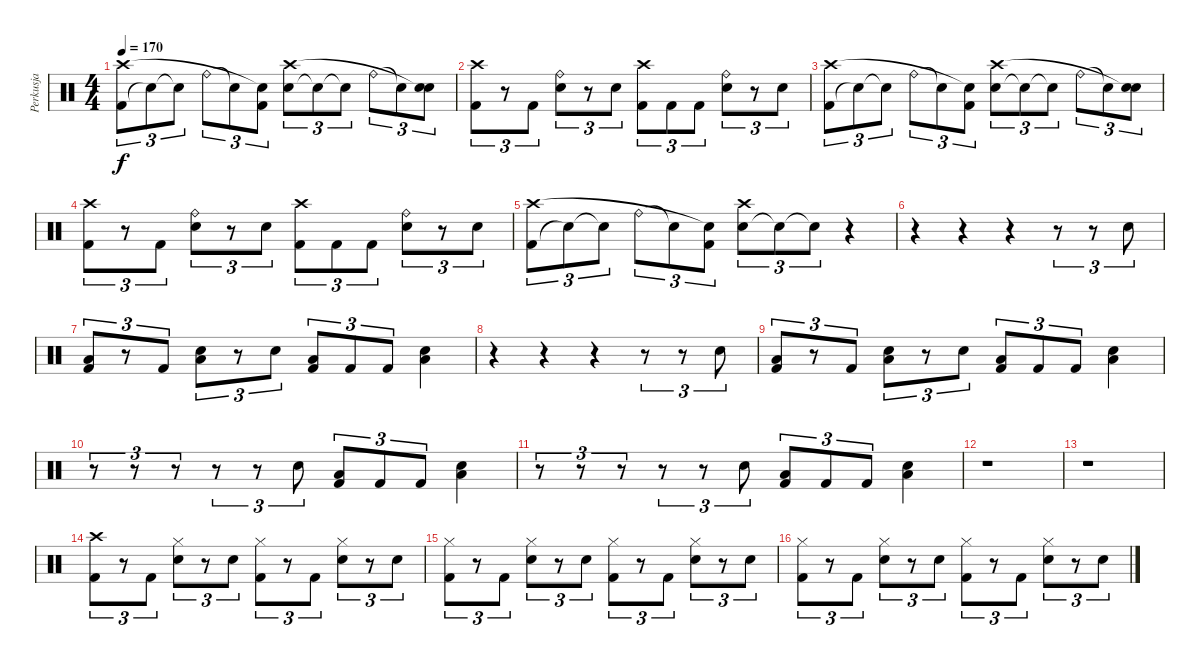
\track ("Perkusja" "Perkusja") {instrument percussion}
\staff {score}
\articulation defaults
\ts (4 4)
\tempo 170
\clef neutral
\ks c
("Kick (hit) 2" "Crash high (hit)").8{tu (3 2) dy f} "Snare (hit)"{t}.8{tu (3 2)} "Snare (hit)"{t}.8{tu (3 2)} "Ride (bell)".8{tu (3 2)} "Snare (hit)"{t}.8{tu (3 2)} ("Kick (hit) 2" "Snare (hit)"{t}).8{tu (3 2)} ("Electric Snare (hit)" "Crash high (hit)").8{tu (3 2)} "Snare (hit)"{t}.8{tu (3 2)} "Snare (hit)"{t}.8{tu (3 2)} "Ride (bell)".8{tu (3 2)} "Snare (hit)"{t}.8{tu (3 2)} ("Electric Snare (hit)" "Snare (hit)"{t}).8{tu (3 2)} |
("Kick (hit) 2" "Crash high (hit)").8{tu (3 2)} r.8{tu (3 2)} "Kick (hit) 2".8{tu (3 2)} ("Electric Snare (hit)" "Ride (bell)").8{tu (3 2)} r.8{tu (3 2)} "Electric Snare (hit)".8{tu (3 2)} ("Kick (hit) 2" "Crash high (hit)").8{tu (3 2)} "Kick (hit) 2".8{tu (3 2)} "Kick (hit) 2".8{tu (3 2)} ("Electric Snare (hit)" "Ride (bell)").8{tu (3 2)} r.8{tu (3 2)} "Electric Snare (hit)".8{tu (3 2)} |
("Kick (hit) 2" "Crash high (hit)").8{tu (3 2)} "Snare (hit)"{t}.8{tu (3 2)} "Snare (hit)"{t}.8{tu (3 2)} "Ride (bell)".8{tu (3 2)} "Snare (hit)"{t}.8{tu (3 2)} ("Kick (hit) 2" "Snare (hit)"{t}).8{tu (3 2)} ("Electric Snare (hit)" "Crash high (hit)").8{tu (3 2)} "Snare (hit)"{t}.8{tu (3 2)} "Snare (hit)"{t}.8{tu (3 2)} "Ride (bell)".8{tu (3 2)} "Snare (hit)"{t}.8{tu (3 2)} ("Electric Snare (hit)" "Snare (hit)"{t}).8{tu (3 2)} |
("Kick (hit) 2" "Crash high (hit)").8{tu (3 2)} r.8{tu (3 2)} "Kick (hit) 2".8{tu (3 2)} ("Electric Snare (hit)" "Ride (bell)").8{tu (3 2)} r.8{tu (3 2)} "Electric Snare (hit)".8{tu (3 2)} ("Kick (hit) 2" "Crash high (hit)").8{tu (3 2)} "Kick (hit) 2".8{tu (3 2)} "Kick (hit) 2".8{tu (3 2)} ("Electric Snare (hit)" "Ride (bell)").8{tu (3 2)} r.8{tu (3 2)} "Electric Snare (hit)".8{tu (3 2)} |
("Kick (hit) 2" "Crash high (hit)").8{tu (3 2)} "Snare (hit)"{t}.8{tu (3 2)} "Snare (hit)"{t}.8{tu (3 2)} "Ride (bell)".8{tu (3 2)} "Snare (hit)"{t}.8{tu (3 2)} ("Kick (hit) 2" "Snare (hit)"{t}).8{tu (3 2)} ("Electric Snare (hit)" "Crash high (hit)").8{tu (3 2)} "Snare (hit)"{t}.8{tu (3 2)} "Snare (hit)"{t}.8{tu (3 2)} r.4 |
r.4 r.4 r.4 r.8{tu (3 2)} r.8{tu (3 2)} "Electric Snare (hit)".8{tu (3 2)} |
("Kick (hit) 2" "Low Floor Tom (hit)").8{tu (3 2)} r.8{tu (3 2)} "Kick (hit) 2".8{tu (3 2)} ("Electric Snare (hit)" "Low Floor Tom (hit)").8{tu (3 2)} r.8{tu (3 2)} "Electric Snare (hit)".8{tu (3 2)} ("Kick (hit) 2" "Low Floor Tom (hit)").8{tu (3 2)} "Kick (hit) 2".8{tu (3 2)} "Kick (hit) 2".8{tu (3 2)} ("Electric Snare (hit)" "Low Floor Tom (hit)").4 |
r.4 r.4 r.4 r.8{tu (3 2)} r.8{tu (3 2)} "Electric Snare (hit)".8{tu (3 2)} |
("Kick (hit) 2" "Low Floor Tom (hit)").8{tu (3 2)} r.8{tu (3 2)} "Kick (hit) 2".8{tu (3 2)} ("Electric Snare (hit)" "Low Floor Tom (hit)").8{tu (3 2)} r.8{tu (3 2)} "Electric Snare (hit)".8{tu (3 2)} ("Kick (hit) 2" "Low Floor Tom (hit)").8{tu (3 2)} "Kick (hit) 2".8{tu (3 2)} "Kick (hit) 2".8{tu (3 2)} ("Electric Snare (hit)" "Low Floor Tom (hit)").4 |
r.8{tu (3 2)} r.8{tu (3 2)} r.8{tu (3 2)} r.8{tu (3 2)} r.8{tu (3 2)} "Electric Snare (hit)".8{tu (3 2)} ("Kick (hit) 2" "Low Floor Tom (hit)").8{tu (3 2)} "Kick (hit) 2".8{tu (3 2)} "Kick (hit) 2".8{tu (3 2)} ("Electric Snare (hit)" "Low Floor Tom (hit)").4 |
r.8{tu (3 2)} r.8{tu (3 2)} r.8{tu (3 2)} r.8{tu (3 2)} r.8{tu (3 2)} "Electric Snare (hit)".8{tu (3 2)} ("Kick (hit) 2" "Low Floor Tom (hit)").8{tu (3 2)} "Kick (hit) 2".8{tu (3 2)} "Kick (hit) 2".8{tu (3 2)} ("Electric Snare (hit)" "Low Floor Tom (hit)").4 |
r.1 |
r.1 |
("Kick (hit) 2" "Crash high (hit)").8{tu (3 2)} r.8{tu (3 2)} "Kick (hit) 2".8{tu (3 2)} ("Electric Snare (hit)" "Hi-Hat (closed)").8{tu (3 2)} r.8{tu (3 2)} "Electric Snare (hit)".8{tu (3 2)} ("Kick (hit) 2" "Hi-Hat (closed)").8{tu (3 2)} r.8{tu (3 2)} "Kick (hit) 2".8{tu (3 2)} ("Electric Snare (hit)" "Hi-Hat (closed)").8{tu (3 2)} r.8{tu (3 2)} "Electric Snare (hit)".8{tu (3 2)} |
("Kick (hit) 2" "Hi-Hat (closed)").8{tu (3 2)} r.8{tu (3 2)} "Kick (hit) 2".8{tu (3 2)} ("Electric Snare (hit)" "Hi-Hat (closed)").8{tu (3 2)} r.8{tu (3 2)} "Electric Snare (hit)".8{tu (3 2)} ("Kick (hit) 2" "Hi-Hat (closed)").8{tu (3 2)} r.8{tu (3 2)} "Kick (hit) 2".8{tu (3 2)} ("Electric Snare (hit)" "Hi-Hat (closed)").8{tu (3 2)} r.8{tu (3 2)} "Electric Snare (hit)".8{tu (3 2)} |
("Kick (hit) 2" "Hi-Hat (closed)").8{tu (3 2)} r.8{tu (3 2)} "Kick (hit) 2".8{tu (3 2)} ("Electric Snare (hit)" "Hi-Hat (closed)").8{tu (3 2)} r.8{tu (3 2)} "Electric Snare (hit)".8{tu (3 2)} ("Kick (hit) 2" "Hi-Hat (closed)").8{tu (3 2)} r.8{tu (3 2)} "Kick (hit) 2".8{tu (3 2)} ("Electric Snare (hit)" "Hi-Hat (closed)").8{tu (3 2)} r.8{tu (3 2)} "Electric Snare (hit)".8{tu (3 2)}
